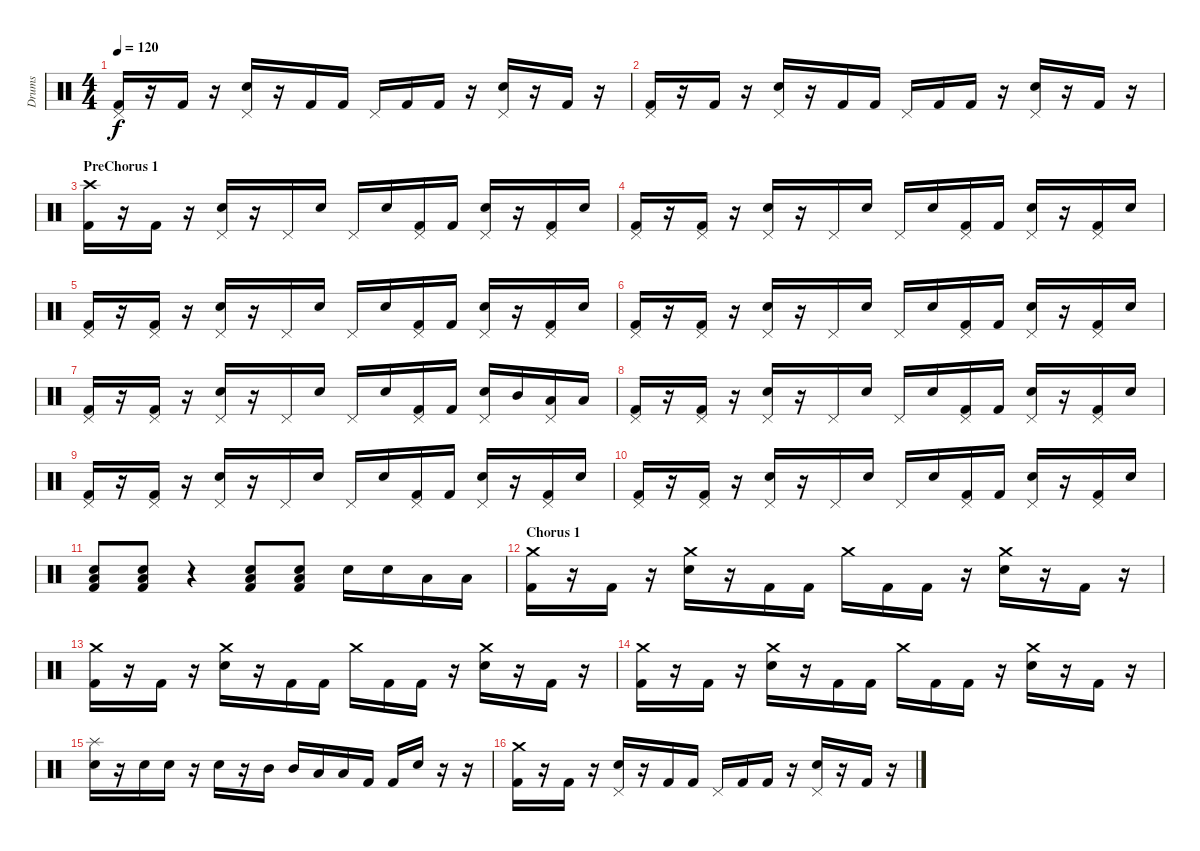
\track ("Drums" "Drums") {instrument percussion}
\staff {score}
\articulation defaults
\ts (4 4)
\tempo 120
\clef neutral
\ks c
("Pedal Hi-Hat (hit)" "Kick (hit) 2").16{dy f} r.16 "Kick (hit) 2".16 r.16 ("Pedal Hi-Hat (hit)" "Snare (hit) 2").16 r.16 "Kick (hit) 2".16 "Kick (hit) 2".16 "Pedal Hi-Hat (hit)".16 "Kick (hit) 2".16 "Kick (hit) 2".16 r.16 ("Pedal Hi-Hat (hit)" "Snare (hit) 2").16 r.16 "Kick (hit) 2".16 r.16 |
("Pedal Hi-Hat (hit)" "Kick (hit) 2").16 r.16 "Kick (hit) 2".16 r.16 ("Pedal Hi-Hat (hit)" "Snare (hit) 2").16 r.16 "Kick (hit) 2".16 "Kick (hit) 2".16 "Pedal Hi-Hat (hit)".16 "Kick (hit) 2".16 "Kick (hit) 2".16 r.16 ("Pedal Hi-Hat (hit)" "Snare (hit) 2").16 r.16 "Kick (hit) 2".16 r.16 |
\section ("" "PreChorus 1")
("Crash high (hit)" "Kick (hit) 2").16 r.16 "Kick (hit) 2".16 r.16 ("Pedal Hi-Hat (hit)" "Snare (hit) 2").16 r.16 "Pedal Hi-Hat (hit)".16 "Snare (hit) 2".16 "Pedal Hi-Hat (hit)".16 "Snare (hit) 2".16 ("Pedal Hi-Hat (hit)" "Kick (hit) 2").16 "Kick (hit) 2".16 ("Pedal Hi-Hat (hit)" "Snare (hit) 2").16 r.16 ("Pedal Hi-Hat (hit)" "Kick (hit) 2").16 "Snare (hit) 2".16 |
("Pedal Hi-Hat (hit)" "Kick (hit) 2").16 r.16 ("Pedal Hi-Hat (hit)" "Kick (hit) 2").16 r.16 ("Pedal Hi-Hat (hit)" "Snare (hit) 2").16 r.16 "Pedal Hi-Hat (hit)".16 "Snare (hit) 2".16 "Pedal Hi-Hat (hit)".16 "Snare (hit) 2".16 ("Pedal Hi-Hat (hit)" "Kick (hit) 2").16 "Kick (hit) 2".16 ("Pedal Hi-Hat (hit)" "Snare (hit) 2").16 r.16 ("Pedal Hi-Hat (hit)" "Kick (hit) 2").16 "Snare (hit) 2".16 |
("Pedal Hi-Hat (hit)" "Kick (hit) 2").16 r.16 ("Pedal Hi-Hat (hit)" "Kick (hit) 2").16 r.16 ("Pedal Hi-Hat (hit)" "Snare (hit) 2").16 r.16 "Pedal Hi-Hat (hit)".16 "Snare (hit) 2".16 "Pedal Hi-Hat (hit)".16 "Snare (hit) 2".16 ("Pedal Hi-Hat (hit)" "Kick (hit) 2").16 "Kick (hit) 2".16 ("Pedal Hi-Hat (hit)" "Snare (hit) 2").16 r.16 ("Pedal Hi-Hat (hit)" "Kick (hit) 2").16 "Snare (hit) 2".16 |
("Pedal Hi-Hat (hit)" "Kick (hit) 2").16 r.16 ("Pedal Hi-Hat (hit)" "Kick (hit) 2").16 r.16 ("Pedal Hi-Hat (hit)" "Snare (hit) 2").16 r.16 "Pedal Hi-Hat (hit)".16 "Snare (hit) 2".16 "Pedal Hi-Hat (hit)".16 "Snare (hit) 2".16 ("Pedal Hi-Hat (hit)" "Kick (hit) 2").16 "Kick (hit) 2".16 ("Pedal Hi-Hat (hit)" "Snare (hit) 2").16 r.16 ("Pedal Hi-Hat (hit)" "Kick (hit) 2").16 "Snare (hit) 2".16 |
("Pedal Hi-Hat (hit)" "Kick (hit) 2").16 r.16 ("Pedal Hi-Hat (hit)" "Kick (hit) 2").16 r.16 ("Pedal Hi-Hat (hit)" "Snare (hit) 2").16 r.16 "Pedal Hi-Hat (hit)".16 "Snare (hit) 2".16 "Pedal Hi-Hat (hit)".16 "Snare (hit) 2".16 ("Pedal Hi-Hat (hit)" "Kick (hit) 2").16 "Kick (hit) 2".16 ("Pedal Hi-Hat (hit)" "Snare (hit) 2").16 "Mid Tom (hit)".16 ("Pedal Hi-Hat (hit)" "Low Tom (hit)").16 "Low Tom (hit)".16 |
("Pedal Hi-Hat (hit)" "Kick (hit) 2").16 r.16 ("Pedal Hi-Hat (hit)" "Kick (hit) 2").16 r.16 ("Pedal Hi-Hat (hit)" "Snare (hit) 2").16 r.16 "Pedal Hi-Hat (hit)".16 "Snare (hit) 2".16 "Pedal Hi-Hat (hit)".16 "Snare (hit) 2".16 ("Pedal Hi-Hat (hit)" "Kick (hit) 2").16 "Kick (hit) 2".16 ("Pedal Hi-Hat (hit)" "Snare (hit) 2").16 r.16 ("Pedal Hi-Hat (hit)" "Kick (hit) 2").16 "Snare (hit) 2".16 |
("Pedal Hi-Hat (hit)" "Kick (hit) 2").16 r.16 ("Pedal Hi-Hat (hit)" "Kick (hit) 2").16 r.16 ("Pedal Hi-Hat (hit)" "Snare (hit) 2").16 r.16 "Pedal Hi-Hat (hit)".16 "Snare (hit) 2".16 "Pedal Hi-Hat (hit)".16 "Snare (hit) 2".16 ("Pedal Hi-Hat (hit)" "Kick (hit) 2").16 "Kick (hit) 2".16 ("Pedal Hi-Hat (hit)" "Snare (hit) 2").16 r.16 ("Pedal Hi-Hat (hit)" "Kick (hit) 2").16 "Snare (hit) 2".16 |
("Pedal Hi-Hat (hit)" "Kick (hit) 2").16 r.16 ("Pedal Hi-Hat (hit)" "Kick (hit) 2").16 r.16 ("Pedal Hi-Hat (hit)" "Snare (hit) 2").16 r.16 "Pedal Hi-Hat (hit)".16 "Snare (hit) 2".16 "Pedal Hi-Hat (hit)".16 "Snare (hit) 2".16 ("Pedal Hi-Hat (hit)" "Kick (hit) 2").16 "Kick (hit) 2".16 ("Pedal Hi-Hat (hit)" "Snare (hit) 2").16 r.16 ("Pedal Hi-Hat (hit)" "Kick (hit) 2").16 "Snare (hit) 2".16 |
("Snare (hit) 2" "Low Floor Tom (hit)" "Kick (hit) 2").8 ("Snare (hit) 2" "Low Floor Tom (hit)" "Kick (hit) 2").8 r.4 ("Snare (hit) 2" "Low Floor Tom (hit)" "Kick (hit) 2").8 ("Snare (hit) 2" "Low Floor Tom (hit)" "Kick (hit) 2").8 "Electric Snare (hit)".16 "Electric Snare (hit)".16 "Low Tom (hit)".16 "Low Floor Tom (hit)".16 |
\section ("" "Chorus 1")
("Crash medium (hit)" "Kick (hit) 2").16 r.16 "Kick (hit) 2".16 r.16 ("Crash medium (hit)" "Snare (hit) 2").16 r.16 "Kick (hit) 2".16 "Kick (hit) 2".16 "Crash medium (hit)".16 "Kick (hit) 2".16 "Kick (hit) 2".16 r.16 ("Crash medium (hit)" "Snare (hit) 2").16 r.16 "Kick (hit) 2".16 r.16 |
("Crash medium (hit)" "Kick (hit) 2").16 r.16 "Kick (hit) 2".16 r.16 ("Crash medium (hit)" "Snare (hit) 2").16 r.16 "Kick (hit) 2".16 "Kick (hit) 2".16 "Crash medium (hit)".16 "Kick (hit) 2".16 "Kick (hit) 2".16 r.16 ("Crash medium (hit)" "Snare (hit) 2").16 r.16 "Kick (hit) 2".16 r.16 |
("Crash medium (hit)" "Kick (hit) 2").16 r.16 "Kick (hit) 2".16 r.16 ("Crash medium (hit)" "Snare (hit) 2").16 r.16 "Kick (hit) 2".16 "Kick (hit) 2".16 "Crash medium (hit)".16 "Kick (hit) 2".16 "Kick (hit) 2".16 r.16 ("Crash medium (hit)" "Snare (hit) 2").16 r.16 "Kick (hit) 2".16 r.16 |
("Splash (hit)" "Snare (hit) 2").16 r.16 "Snare (hit) 2".16 "Snare (hit) 2".16 r.16 "Snare (hit) 2".16 r.16 "Mid Tom (hit)".16 "Mid Tom (hit)".16 "Low Tom (hit)".16 "Low Tom (hit)".16 "Kick (hit) 2".16 "Kick (hit) 2".16 "Snare (hit) 2".16 r.16 r.16 |
("Crash medium (hit)" "Kick (hit) 2").16 r.16 "Kick (hit) 2".16 r.16 ("Pedal Hi-Hat (hit)" "Snare (hit) 2").16 r.16 "Kick (hit) 2".16 "Kick (hit) 2".16 "Pedal Hi-Hat (hit)".16 "Kick (hit) 2".16 "Kick (hit) 2".16 r.16 ("Pedal Hi-Hat (hit)" "Snare (hit) 2").16 r.16 "Kick (hit) 2".16 r.16
